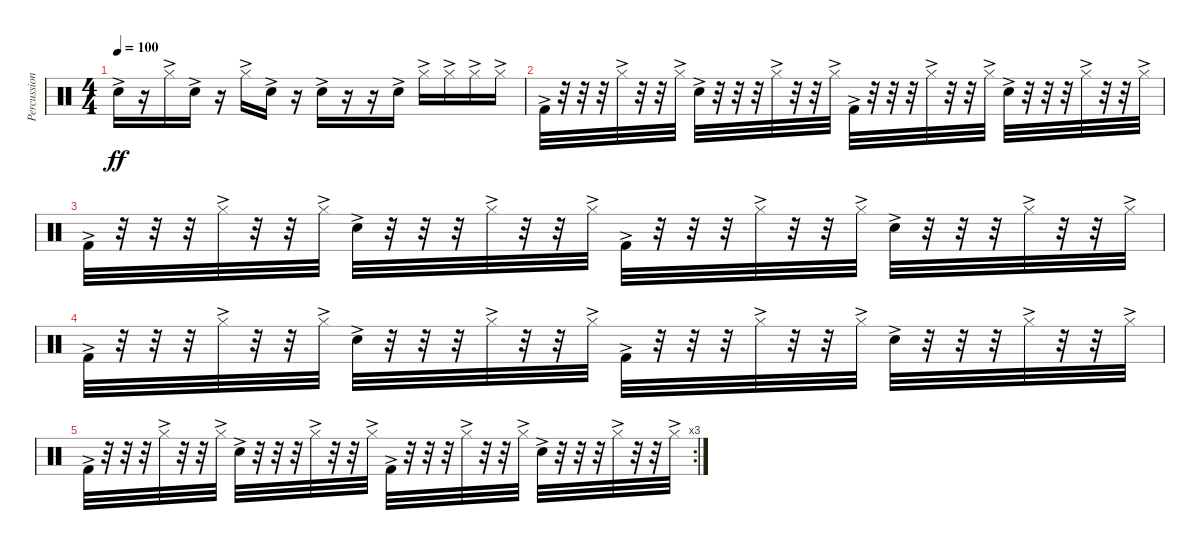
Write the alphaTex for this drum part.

\track ("Percussion" "Percussion") {instrument percussion bank 2}
\staff {score}
\articulation defaults
\ts (4 4)
\tempo 100
\clef neutral
\ks c "Snare (hit) 2"{ac}.16{dy ff}
r.16 "Hi-Hat (closed)"{ac}.16 "Snare (hit) 2"{ac}.16 r.16 "Hi-Hat (closed)"{ac}.16 "Snare (hit) 2"{ac}.16 r.16 "Snare (hit) 2"{ac}.16 r.16 r.16 "Snare (hit) 2"{ac}.16 "Hi-Hat (closed)"{ac}.16 "Hi-Hat (closed)"{ac}.16 "Hi-Hat (closed)"{ac}.16 "Hi-Hat (closed)"{ac}.16 |
"Kick (hit) 2"{ac}.32 r.32 r.32 r.32 "Hi-Hat (closed)"{ac}.32 r.32 r.32 "Hi-Hat (closed)"{ac}.32 "Snare (hit) 2"{ac}.32 r.32 r.32 r.32 "Hi-Hat (closed)"{ac}.32 r.32 r.32 "Hi-Hat (closed)"{ac}.32 "Kick (hit) 2"{ac}.32 r.32 r.32 r.32 "Hi-Hat (closed)"{ac}.32 r.32 r.32 "Hi-Hat (closed)"{ac}.32 "Snare (hit) 2"{ac}.32 r.32 r.32 r.32 "Hi-Hat (closed)"{ac}.32 r.32 r.32 "Hi-Hat (closed)"{ac}.32 |
"Kick (hit) 2"{ac}.32 r.32 r.32 r.32 "Hi-Hat (closed)"{ac}.32 r.32 r.32 "Hi-Hat (closed)"{ac}.32 "Snare (hit) 2"{ac}.32 r.32 r.32 r.32 "Hi-Hat (closed)"{ac}.32 r.32 r.32 "Hi-Hat (closed)"{ac}.32 "Kick (hit) 2"{ac}.32 r.32 r.32 r.32 "Hi-Hat (closed)"{ac}.32 r.32 r.32 "Hi-Hat (closed)"{ac}.32 "Snare (hit) 2"{ac}.32 r.32 r.32 r.32 "Hi-Hat (closed)"{ac}.32 r.32 r.32 "Hi-Hat (closed)"{ac}.32 |
"Kick (hit) 2"{ac}.32 r.32 r.32 r.32 "Hi-Hat (closed)"{ac}.32 r.32 r.32 "Hi-Hat (closed)"{ac}.32 "Snare (hit) 2"{ac}.32 r.32 r.32 r.32 "Hi-Hat (closed)"{ac}.32 r.32 r.32 "Hi-Hat (closed)"{ac}.32 "Kick (hit) 2"{ac}.32 r.32 r.32 r.32 "Hi-Hat (closed)"{ac}.32 r.32 r.32 "Hi-Hat (closed)"{ac}.32 "Snare (hit) 2"{ac}.32 r.32 r.32 r.32 "Hi-Hat (closed)"{ac}.32 r.32 r.32 "Hi-Hat (closed)"{ac}.32 |
\rc 3 "Kick (hit) 2"{ac}.32
r.32 r.32 r.32 "Hi-Hat (closed)"{ac}.32 r.32 r.32 "Hi-Hat (closed)"{ac}.32 "Snare (hit) 2"{ac}.32 r.32 r.32 r.32 "Hi-Hat (closed)"{ac}.32 r.32 r.32 "Hi-Hat (closed)"{ac}.32 "Kick (hit) 2"{ac}.32 r.32 r.32 r.32 "Hi-Hat (closed)"{ac}.32 r.32 r.32 "Hi-Hat (closed)"{ac}.32 "Snare (hit) 2"{ac}.32 r.32 r.32 r.32 "Hi-Hat (closed)"{ac}.32 r.32 r.32 "Hi-Hat (closed)"{ac}.32
